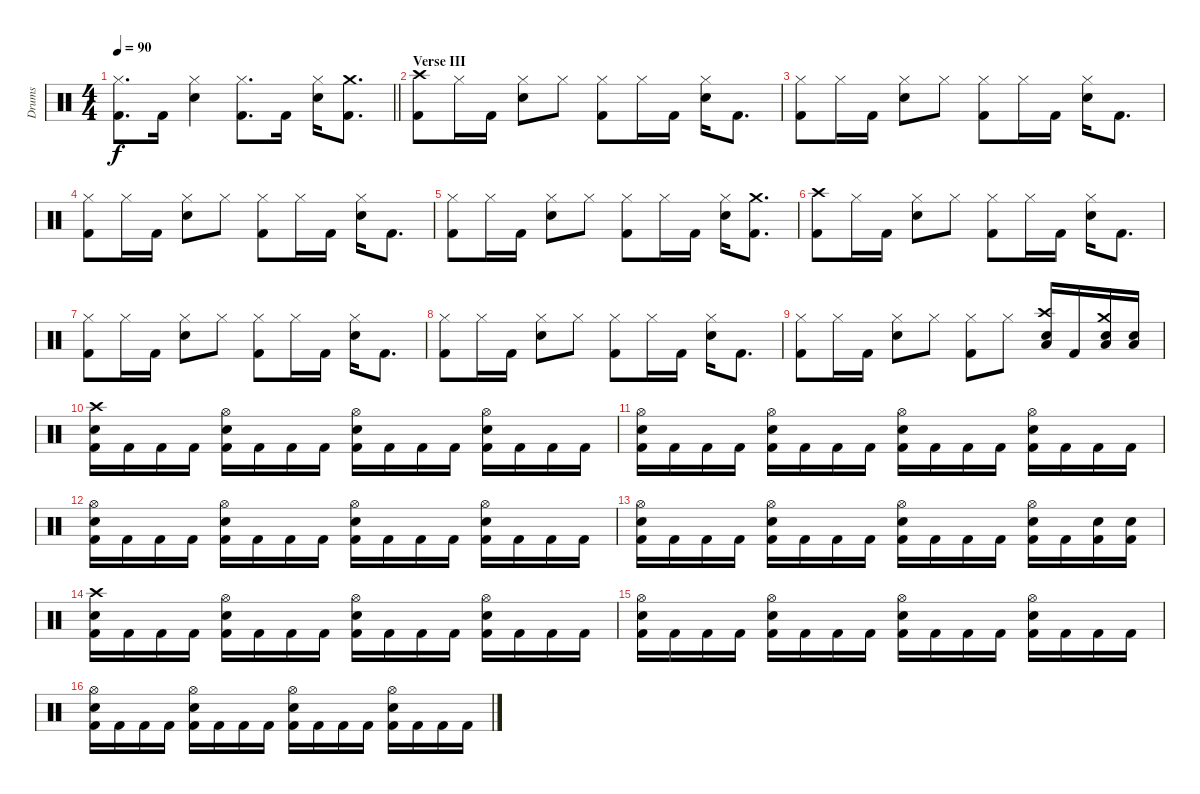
\track ("Drums" "Drums") {instrument percussion}
\staff {score}
\articulation defaults
\ts (4 4)
\tempo 90
\clef neutral
\barLineRight lightlight
\ks c
("Hi-Hat (closed)" "Kick (hit) 2").8{d dy f} "Kick (hit) 2".16 ("Hi-Hat (closed)" "Snare (hit) 2").4 ("Hi-Hat (closed)" "Kick (hit) 2").8{d} "Kick (hit) 2".16 ("Hi-Hat (closed)" "Snare (hit) 2").16 ("Crash medium (hit)" "Kick (hit) 2").8{d} |
\section ("" "Verse III")
("Crash high (hit)" "Kick (hit) 2").8 "Hi-Hat (closed)".16 "Kick (hit) 2".16 ("Hi-Hat (closed)" "Snare (hit) 2").8 "Hi-Hat (closed)".8 ("Hi-Hat (closed)" "Kick (hit) 2").8 "Hi-Hat (closed)".16 "Kick (hit) 2".16 ("Hi-Hat (closed)" "Snare (hit) 2").16 "Kick (hit) 2".8{d} |
("Hi-Hat (closed)" "Kick (hit) 2").8 "Hi-Hat (closed)".16 "Kick (hit) 2".16 ("Hi-Hat (closed)" "Snare (hit) 2").8 "Hi-Hat (closed)".8 ("Hi-Hat (closed)" "Kick (hit) 2").8 "Hi-Hat (closed)".16 "Kick (hit) 2".16 ("Hi-Hat (closed)" "Snare (hit) 2").16 "Kick (hit) 2".8{d} |
("Hi-Hat (closed)" "Kick (hit) 2").8 "Hi-Hat (closed)".16 "Kick (hit) 2".16 ("Hi-Hat (closed)" "Snare (hit) 2").8 "Hi-Hat (closed)".8 ("Hi-Hat (closed)" "Kick (hit) 2").8 "Hi-Hat (closed)".16 "Kick (hit) 2".16 ("Hi-Hat (closed)" "Snare (hit) 2").16 "Kick (hit) 2".8{d} |
("Hi-Hat (closed)" "Kick (hit) 2").8 "Hi-Hat (closed)".16 "Kick (hit) 2".16 ("Hi-Hat (closed)" "Snare (hit) 2").8 "Hi-Hat (closed)".8 ("Hi-Hat (closed)" "Kick (hit) 2").8 "Hi-Hat (closed)".16 "Kick (hit) 2".16 ("Hi-Hat (closed)" "Snare (hit) 2").16 ("Crash medium (hit)" "Kick (hit) 2").8{d} |
("Crash high (hit)" "Kick (hit) 2").8 "Hi-Hat (closed)".16 "Kick (hit) 2".16 ("Hi-Hat (closed)" "Snare (hit) 2").8 "Hi-Hat (closed)".8 ("Hi-Hat (closed)" "Kick (hit) 2").8 "Hi-Hat (closed)".16 "Kick (hit) 2".16 ("Hi-Hat (closed)" "Snare (hit) 2").16 "Kick (hit) 2".8{d} |
("Hi-Hat (closed)" "Kick (hit) 2").8 "Hi-Hat (closed)".16 "Kick (hit) 2".16 ("Hi-Hat (closed)" "Snare (hit) 2").8 "Hi-Hat (closed)".8 ("Hi-Hat (closed)" "Kick (hit) 2").8 "Hi-Hat (closed)".16 "Kick (hit) 2".16 ("Hi-Hat (closed)" "Snare (hit) 2").16 "Kick (hit) 2".8{d} |
("Hi-Hat (closed)" "Kick (hit) 2").8 "Hi-Hat (closed)".16 "Kick (hit) 2".16 ("Hi-Hat (closed)" "Snare (hit) 2").8 "Hi-Hat (closed)".8 ("Hi-Hat (closed)" "Kick (hit) 2").8 "Hi-Hat (closed)".16 "Kick (hit) 2".16 ("Hi-Hat (closed)" "Snare (hit) 2").16 "Kick (hit) 2".8{d} |
("Hi-Hat (closed)" "Kick (hit) 2").8 "Hi-Hat (closed)".16 "Kick (hit) 2".16 ("Hi-Hat (closed)" "Snare (hit) 2").8 "Hi-Hat (closed)".8 ("Hi-Hat (closed)" "Kick (hit) 2").8 "Hi-Hat (closed)".8 ("Crash high (hit)" "Snare (hit) 2" "Low Floor Tom (hit)").16 "Kick (hit) 2".16 ("Crash medium (hit)" "Snare (hit) 2" "Low Floor Tom (hit)").16 ("Snare (hit) 2" "Low Floor Tom (hit)").16 |
("Crash high (hit)" "Snare (hit) 2" "Kick (hit) 2").16 "Kick (hit) 2".16 "Kick (hit) 2".16 "Kick (hit) 2".16 ("Hi-Hat (open)" "Snare (hit) 2" "Kick (hit) 2").16 "Kick (hit) 2".16 "Kick (hit) 2".16 "Kick (hit) 2".16 ("Hi-Hat (open)" "Snare (hit) 2" "Kick (hit) 2").16 "Kick (hit) 2".16 "Kick (hit) 2".16 "Kick (hit) 2".16 ("Hi-Hat (open)" "Snare (hit) 2" "Kick (hit) 2").16 "Kick (hit) 2".16 "Kick (hit) 2".16 "Kick (hit) 2".16 |
("Hi-Hat (open)" "Snare (hit) 2" "Kick (hit) 2").16 "Kick (hit) 2".16 "Kick (hit) 2".16 "Kick (hit) 2".16 ("Hi-Hat (open)" "Snare (hit) 2" "Kick (hit) 2").16 "Kick (hit) 2".16 "Kick (hit) 2".16 "Kick (hit) 2".16 ("Hi-Hat (open)" "Snare (hit) 2" "Kick (hit) 2").16 "Kick (hit) 2".16 "Kick (hit) 2".16 "Kick (hit) 2".16 ("Hi-Hat (open)" "Snare (hit) 2" "Kick (hit) 2").16 "Kick (hit) 2".16 "Kick (hit) 2".16 "Kick (hit) 2".16 |
("Hi-Hat (open)" "Snare (hit) 2" "Kick (hit) 2").16 "Kick (hit) 2".16 "Kick (hit) 2".16 "Kick (hit) 2".16 ("Hi-Hat (open)" "Snare (hit) 2" "Kick (hit) 2").16 "Kick (hit) 2".16 "Kick (hit) 2".16 "Kick (hit) 2".16 ("Hi-Hat (open)" "Snare (hit) 2" "Kick (hit) 2").16 "Kick (hit) 2".16 "Kick (hit) 2".16 "Kick (hit) 2".16 ("Hi-Hat (open)" "Snare (hit) 2" "Kick (hit) 2").16 "Kick (hit) 2".16 "Kick (hit) 2".16 "Kick (hit) 2".16 |
("Hi-Hat (open)" "Snare (hit) 2" "Kick (hit) 2").16 "Kick (hit) 2".16 "Kick (hit) 2".16 "Kick (hit) 2".16 ("Hi-Hat (open)" "Snare (hit) 2" "Kick (hit) 2").16 "Kick (hit) 2".16 "Kick (hit) 2".16 "Kick (hit) 2".16 ("Hi-Hat (open)" "Snare (hit) 2" "Kick (hit) 2").16 "Kick (hit) 2".16 "Kick (hit) 2".16 "Kick (hit) 2".16 ("Hi-Hat (open)" "Snare (hit) 2" "Kick (hit) 2").16 "Kick (hit) 2".16 ("Snare (hit) 2" "Kick (hit) 2").16 ("Snare (hit) 2" "Kick (hit) 2").16 |
("Crash high (hit)" "Snare (hit) 2" "Kick (hit) 2").16 "Kick (hit) 2".16 "Kick (hit) 2".16 "Kick (hit) 2".16 ("Hi-Hat (open)" "Snare (hit) 2" "Kick (hit) 2").16 "Kick (hit) 2".16 "Kick (hit) 2".16 "Kick (hit) 2".16 ("Hi-Hat (open)" "Snare (hit) 2" "Kick (hit) 2").16 "Kick (hit) 2".16 "Kick (hit) 2".16 "Kick (hit) 2".16 ("Hi-Hat (open)" "Snare (hit) 2" "Kick (hit) 2").16 "Kick (hit) 2".16 "Kick (hit) 2".16 "Kick (hit) 2".16 |
("Hi-Hat (open)" "Snare (hit) 2" "Kick (hit) 2").16 "Kick (hit) 2".16 "Kick (hit) 2".16 "Kick (hit) 2".16 ("Hi-Hat (open)" "Snare (hit) 2" "Kick (hit) 2").16 "Kick (hit) 2".16 "Kick (hit) 2".16 "Kick (hit) 2".16 ("Hi-Hat (open)" "Snare (hit) 2" "Kick (hit) 2").16 "Kick (hit) 2".16 "Kick (hit) 2".16 "Kick (hit) 2".16 ("Hi-Hat (open)" "Snare (hit) 2" "Kick (hit) 2").16 "Kick (hit) 2".16 "Kick (hit) 2".16 "Kick (hit) 2".16 |
("Hi-Hat (open)" "Snare (hit) 2" "Kick (hit) 2").16 "Kick (hit) 2".16 "Kick (hit) 2".16 "Kick (hit) 2".16 ("Hi-Hat (open)" "Snare (hit) 2" "Kick (hit) 2").16 "Kick (hit) 2".16 "Kick (hit) 2".16 "Kick (hit) 2".16 ("Hi-Hat (open)" "Snare (hit) 2" "Kick (hit) 2").16 "Kick (hit) 2".16 "Kick (hit) 2".16 "Kick (hit) 2".16 ("Hi-Hat (open)" "Snare (hit) 2" "Kick (hit) 2").16 "Kick (hit) 2".16 "Kick (hit) 2".16 "Kick (hit) 2".16
